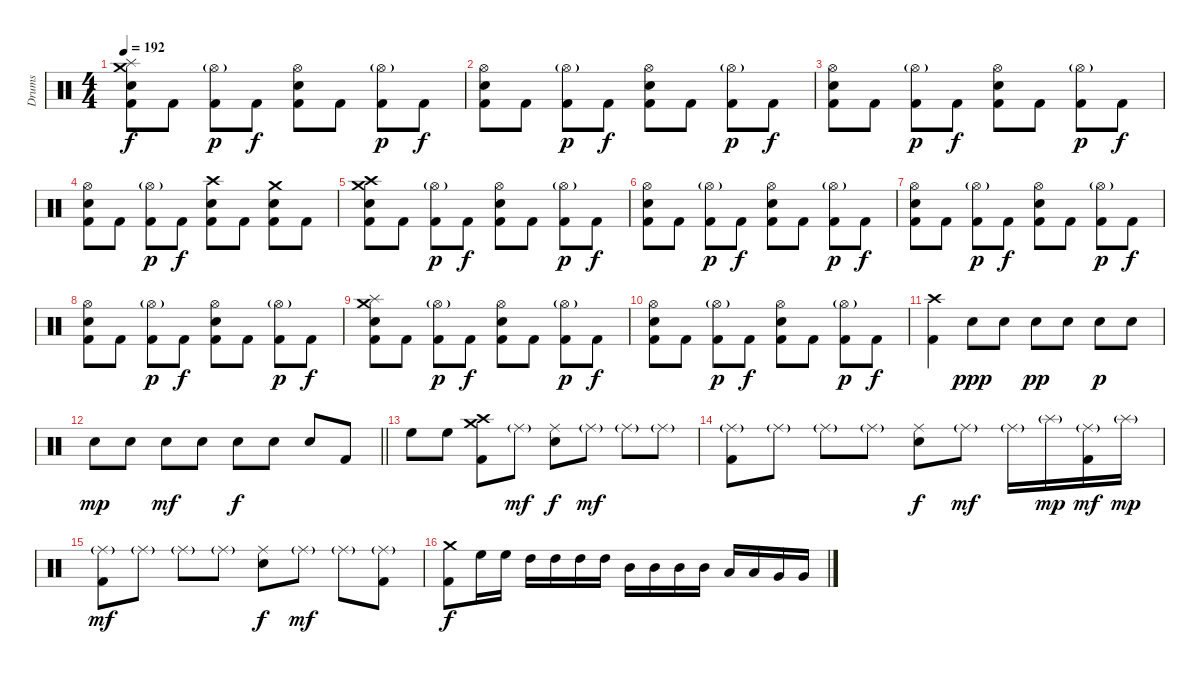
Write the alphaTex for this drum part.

\track ("Drums" "Drums") {instrument percussion}
\staff {score}
\articulation defaults
\ts (4 4)
\tempo 192
\clef neutral
\ks c
("Crash medium (hit)" "Splash (hit)" "Electric Snare (hit)" "Kick (hit) 2").8{dy f} "Kick (hit) 2".8 ("Hi-Hat (open)"{g} "Kick (hit) 2").8{dy p} "Kick (hit) 2".8{dy f} ("Hi-Hat (open)" "Electric Snare (hit)" "Kick (hit) 2").8 "Kick (hit) 2".8 ("Hi-Hat (open)"{g} "Kick (hit) 2").8{dy p} "Kick (hit) 2".8{dy f} |
("Hi-Hat (open)" "Electric Snare (hit)" "Kick (hit) 2").8 "Kick (hit) 2".8 ("Hi-Hat (open)"{g} "Kick (hit) 2").8{dy p} "Kick (hit) 2".8{dy f} ("Hi-Hat (open)" "Electric Snare (hit)" "Kick (hit) 2").8 "Kick (hit) 2".8 ("Hi-Hat (open)"{g} "Kick (hit) 2").8{dy p} "Kick (hit) 2".8{dy f} |
("Hi-Hat (open)" "Electric Snare (hit)" "Kick (hit) 2").8 "Kick (hit) 2".8 ("Hi-Hat (open)"{g} "Kick (hit) 2").8{dy p} "Kick (hit) 2".8{dy f} ("Hi-Hat (open)" "Electric Snare (hit)" "Kick (hit) 2").8 "Kick (hit) 2".8 ("Hi-Hat (open)"{g} "Kick (hit) 2").8{dy p} "Kick (hit) 2".8{dy f} |
("Hi-Hat (open)" "Electric Snare (hit)" "Kick (hit) 2").8 "Kick (hit) 2".8 ("Hi-Hat (open)"{g} "Kick (hit) 2").8{dy p} "Kick (hit) 2".8{dy f} ("Crash high (hit)" "Electric Snare (hit)" "Kick (hit) 2").8 "Kick (hit) 2".8 ("Crash medium (hit)" "Electric Snare (hit)" "Kick (hit) 2").8 "Kick (hit) 2".8 |
("Crash high (hit)" "Crash medium (hit)" "Electric Snare (hit)" "Kick (hit) 2").8 "Kick (hit) 2".8 ("Hi-Hat (open)"{g} "Kick (hit) 2").8{dy p} "Kick (hit) 2".8{dy f} ("Hi-Hat (open)" "Electric Snare (hit)" "Kick (hit) 2").8 "Kick (hit) 2".8 ("Hi-Hat (open)"{g} "Kick (hit) 2").8{dy p} "Kick (hit) 2".8{dy f} |
("Hi-Hat (open)" "Electric Snare (hit)" "Kick (hit) 2").8 "Kick (hit) 2".8 ("Hi-Hat (open)"{g} "Kick (hit) 2").8{dy p} "Kick (hit) 2".8{dy f} ("Hi-Hat (open)" "Electric Snare (hit)" "Kick (hit) 2").8 "Kick (hit) 2".8 ("Hi-Hat (open)"{g} "Kick (hit) 2").8{dy p} "Kick (hit) 2".8{dy f} |
("Hi-Hat (open)" "Electric Snare (hit)" "Kick (hit) 2").8 "Kick (hit) 2".8 ("Hi-Hat (open)"{g} "Kick (hit) 2").8{dy p} "Kick (hit) 2".8{dy f} ("Hi-Hat (open)" "Electric Snare (hit)" "Kick (hit) 2").8 "Kick (hit) 2".8 ("Hi-Hat (open)"{g} "Kick (hit) 2").8{dy p} "Kick (hit) 2".8{dy f} |
("Hi-Hat (open)" "Electric Snare (hit)" "Kick (hit) 2").8 "Kick (hit) 2".8 ("Hi-Hat (open)"{g} "Kick (hit) 2").8{dy p} "Kick (hit) 2".8{dy f} ("Hi-Hat (open)" "Electric Snare (hit)" "Kick (hit) 2").8 "Kick (hit) 2".8 ("Hi-Hat (open)"{g} "Kick (hit) 2").8{dy p} "Kick (hit) 2".8{dy f} |
("Crash medium (hit)" "Splash (hit)" "Electric Snare (hit)" "Kick (hit) 2").8 "Kick (hit) 2".8 ("Hi-Hat (open)"{g} "Kick (hit) 2").8{dy p} "Kick (hit) 2".8{dy f} ("Hi-Hat (open)" "Electric Snare (hit)" "Kick (hit) 2").8 "Kick (hit) 2".8 ("Hi-Hat (open)"{g} "Kick (hit) 2").8{dy p} "Kick (hit) 2".8{dy f} |
("Hi-Hat (open)" "Electric Snare (hit)" "Kick (hit) 2").8 "Kick (hit) 2".8 ("Hi-Hat (open)"{g} "Kick (hit) 2").8{dy p} "Kick (hit) 2".8{dy f} ("Hi-Hat (open)" "Electric Snare (hit)" "Kick (hit) 2").8 "Kick (hit) 2".8 ("Hi-Hat (open)"{g} "Kick (hit) 2").8{dy p} "Kick (hit) 2".8{dy f} |
("Crash high (hit)" "Kick (hit) 2").4 "Electric Snare (hit)".8{dy ppp} "Electric Snare (hit)".8 "Electric Snare (hit)".8{dy pp} "Electric Snare (hit)".8 "Electric Snare (hit)".8{dy p} "Electric Snare (hit)".8 |
\barLineRight lightlight "Electric Snare (hit)".8{dy mp} "Electric Snare (hit)".8 "Electric Snare (hit)".8{dy mf} "Electric Snare (hit)".8 "Electric Snare (hit)".8{dy f} "Electric Snare (hit)".8 "Electric Snare (hit)".8 "Kick (hit) 2".8
|
"High Floor Tom (hit)".8 "High Floor Tom (hit)".8 ("Crash high (hit)" "Crash medium (hit)" "Kick (hit) 2").8 "Ride (middle)"{g}.8{dy mf} ("Ride (middle)" "Electric Snare (hit)").8{dy f} "Ride (middle)"{g}.8{dy mf} "Ride (middle)"{g}.8 "Ride (middle)"{g}.8 |
("Ride (middle)"{g} "Kick (hit) 2").8 "Ride (middle)"{g}.8 "Ride (middle)"{g}.8 "Ride (middle)"{g}.8 ("Ride (middle)" "Electric Snare (hit)").8{dy f} "Ride (middle)"{g}.8{dy mf} "Ride (middle)"{g}.16 "Splash (hit)"{g}.16{dy mp} ("Ride (middle)"{g} "Kick (hit) 2").16{dy mf} "Splash (hit)"{g}.16{dy mp} |
("Ride (middle)"{g} "Kick (hit) 2").8{dy mf} "Ride (middle)"{g}.8 "Ride (middle)"{g}.8 "Ride (middle)"{g}.8 ("Ride (middle)" "Electric Snare (hit)").8{dy f} "Ride (middle)"{g}.8{dy mf} "Ride (middle)"{g}.8 ("Ride (middle)"{g} "Kick (hit) 2").8 |
("Crash medium (hit)" "Kick (hit) 2").8{dy f} "High Floor Tom (hit)".16 "High Floor Tom (hit)".16 "High Tom (hit)".16 "High Tom (hit)".16 "High Tom (hit)".16 "High Tom (hit)".16 "Mid Tom (hit)".16 "Mid Tom (hit)".16 "Mid Tom (hit)".16 "Mid Tom (hit)".16 "Low Tom (hit)".16 "Low Tom (hit)".16 "Very Low Tom (hit)".16 "Very Low Tom (hit)".16
